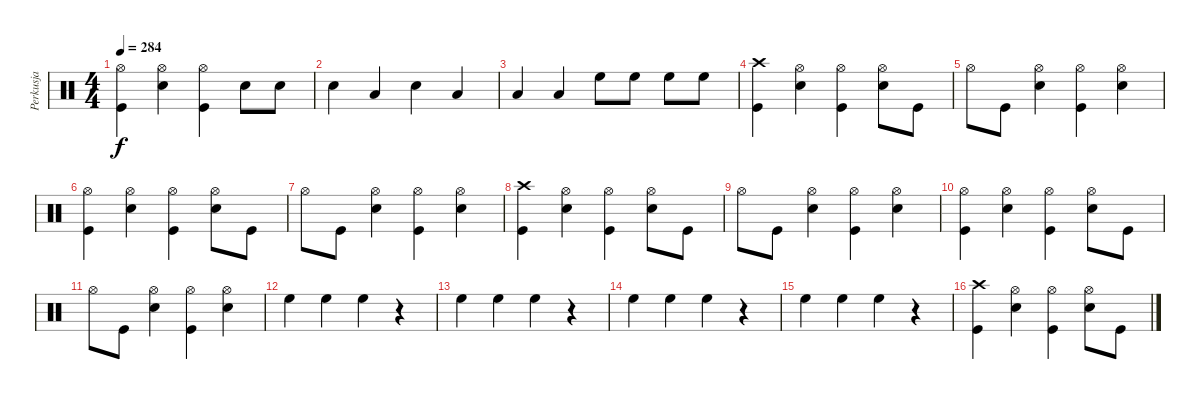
\track ("Perkusja" "Perkusja") {instrument percussion}
\staff {score}
\articulation defaults
\ts (4 4)
\tempo 284
\clef neutral
\ks c
("Hi-Hat (open)" "Kick (hit)").4{dy f} ("Hi-Hat (open)" "Snare (hit) 2").4 ("Hi-Hat (open)" "Kick (hit)").4 "Snare (hit) 2".8 "Snare (hit) 2".8 |
"Snare (hit) 2".4 "Low Tom (hit)".4 "Snare (hit) 2".4 "Low Tom (hit)".4 |
"Low Tom (hit)".4 "Low Tom (hit)".4 "High Floor Tom (hit)".8 "High Floor Tom (hit)".8 "High Floor Tom (hit)".8 "High Floor Tom (hit)".8 |
("Kick (hit)" "Crash high (hit)").4 ("Hi-Hat (open)" "Snare (hit) 2").4 ("Hi-Hat (open)" "Kick (hit)").4 ("Hi-Hat (open)" "Snare (hit) 2").8 "Kick (hit)".8 |
"Hi-Hat (open)".8 "Kick (hit)".8 ("Hi-Hat (open)" "Snare (hit) 2").4 ("Hi-Hat (open)" "Kick (hit)").4 ("Hi-Hat (open)" "Snare (hit) 2").4 |
("Hi-Hat (open)" "Kick (hit)").4 ("Hi-Hat (open)" "Snare (hit) 2").4 ("Hi-Hat (open)" "Kick (hit)").4 ("Hi-Hat (open)" "Snare (hit) 2").8 "Kick (hit)".8 |
"Hi-Hat (open)".8 "Kick (hit)".8 ("Hi-Hat (open)" "Snare (hit) 2").4 ("Hi-Hat (open)" "Kick (hit)").4 ("Hi-Hat (open)" "Snare (hit) 2").4 |
("Kick (hit)" "Crash high (hit)").4 ("Hi-Hat (open)" "Snare (hit) 2").4 ("Hi-Hat (open)" "Kick (hit)").4 ("Hi-Hat (open)" "Snare (hit) 2").8 "Kick (hit)".8 |
"Hi-Hat (open)".8 "Kick (hit)".8 ("Hi-Hat (open)" "Snare (hit) 2").4 ("Hi-Hat (open)" "Kick (hit)").4 ("Hi-Hat (open)" "Snare (hit) 2").4 |
("Hi-Hat (open)" "Kick (hit)").4 ("Hi-Hat (open)" "Snare (hit) 2").4 ("Hi-Hat (open)" "Kick (hit)").4 ("Hi-Hat (open)" "Snare (hit) 2").8 "Kick (hit)".8 |
"Hi-Hat (open)".8 "Kick (hit)".8 ("Hi-Hat (open)" "Snare (hit) 2").4 ("Hi-Hat (open)" "Kick (hit)").4 ("Hi-Hat (open)" "Snare (hit) 2").4 |
"High Floor Tom (hit)".4 "High Floor Tom (hit)".4 "High Floor Tom (hit)".4 r.4 |
"High Floor Tom (hit)".4 "High Floor Tom (hit)".4 "High Floor Tom (hit)".4 r.4 |
"High Floor Tom (hit)".4 "High Floor Tom (hit)".4 "High Floor Tom (hit)".4 r.4 |
"High Floor Tom (hit)".4 "High Floor Tom (hit)".4 "High Floor Tom (hit)".4 r.4 |
("Kick (hit)" "Crash high (hit)").4 ("Hi-Hat (open)" "Snare (hit) 2").4 ("Hi-Hat (open)" "Kick (hit)").4 ("Hi-Hat (open)" "Snare (hit) 2").8 "Kick (hit)".8
